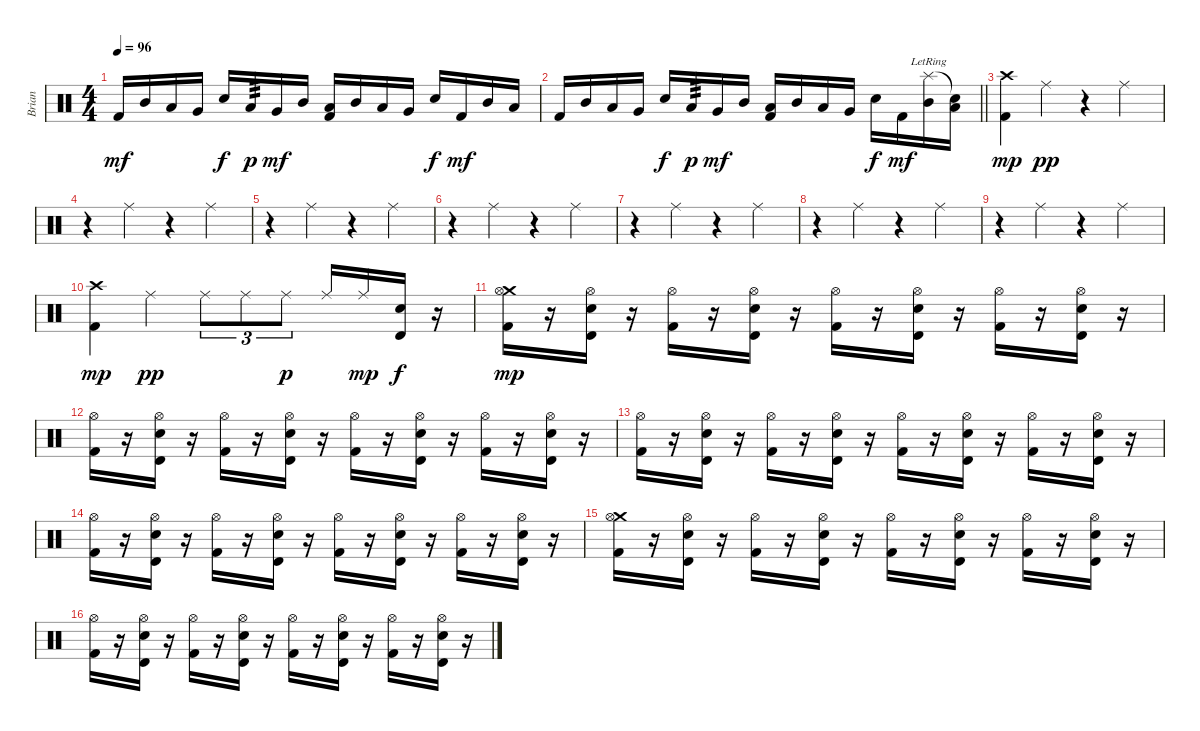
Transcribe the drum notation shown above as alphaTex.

\track ("Brian" "Brian") {instrument percussion}
\staff {score}
\articulation defaults
\ts (4 4)
\tempo 96
\clef neutral
\ks c "Kick (hit) 2".16{dy mf} "Mid Tom (hit)".16 "Low Tom (hit)".16 "Very Low Tom (hit)".16 "Electric Snare (hit)".16{dy f} "Low Tom (hit)".16{tp 3 dy p} "Very Low Tom (hit)".16{dy mf} "Mid Tom (hit)".16
("Low Tom (hit)" "Kick (hit) 2").16 "Mid Tom (hit)".16 "Low Tom (hit)".16 "Very Low Tom (hit)".16 "Electric Snare (hit)".16{dy f} "Kick (hit) 2".16{dy mf} "Mid Tom (hit)".16 "Low Tom (hit)".16 |
\barLineRight lightlight "Kick (hit) 2".16 "Mid Tom (hit)".16 "Low Tom (hit)".16 "Very Low Tom (hit)".16 "Electric Snare (hit)".16{dy f} "Low Tom (hit)".16{tp 3 dy p} "Very Low Tom (hit)".16{dy mf} "Mid Tom (hit)".16
("Low Tom (hit)" "Kick (hit) 2").16 "Mid Tom (hit)".16 "Low Tom (hit)".16 "Very Low Tom (hit)".16 "Electric Snare (hit)".16{dy f} "Kick (hit) 2".16{dy mf} ("Splash (hit)"{lr} "Mid Tom (hit)").16 ("Snare (hit)"{t} "Low Tom (hit)").16 |
("Crash high (hit)" "Kick (hit) 2").4{dy mp} "Ride (middle)".4{dy pp} r.4 "Ride (middle)".4 |
r.4 "Ride (middle)".4 r.4 "Ride (middle)".4 |
r.4 "Ride (middle)".4 r.4 "Ride (middle)".4 |
r.4 "Ride (middle)".4 r.4 "Ride (middle)".4 |
r.4 "Ride (middle)".4 r.4 "Ride (middle)".4 |
r.4 "Ride (middle)".4 r.4 "Ride (middle)".4 |
r.4 "Ride (middle)".4 r.4 "Ride (middle)".4 |
("Crash high (hit)" "Kick (hit) 2").4{dy mp} "Ride (middle)".4{dy pp} "Ride (middle)".8{tu (3 2)} "Ride (middle)".8{tu (3 2)} "Ride (middle)".8{tu (3 2) dy p} "Ride (middle)".16 "Ride (middle)".16{dy mp} ("Timbale high (hit)" "Electric Snare (hit)").16{dy f} r.16 |
("Crash medium (hit)" "Hi-Hat (open)" "Kick (hit) 2").16{dy mp} r.16 ("Hi-Hat (open)" "Timbale high (hit)" "Electric Snare (hit)").16 r.16 ("Hi-Hat (open)" "Kick (hit) 2").16 r.16 ("Hi-Hat (open)" "Timbale high (hit)" "Electric Snare (hit)").16 r.16 ("Hi-Hat (open)" "Kick (hit) 2").16 r.16 ("Hi-Hat (open)" "Timbale high (hit)" "Electric Snare (hit)").16 r.16 ("Hi-Hat (open)" "Kick (hit) 2").16 r.16 ("Hi-Hat (open)" "Timbale high (hit)" "Electric Snare (hit)").16 r.16 |
("Hi-Hat (open)" "Kick (hit) 2").16 r.16 ("Hi-Hat (open)" "Timbale high (hit)" "Electric Snare (hit)").16 r.16 ("Hi-Hat (open)" "Kick (hit) 2").16 r.16 ("Hi-Hat (open)" "Timbale high (hit)" "Electric Snare (hit)").16 r.16 ("Hi-Hat (open)" "Kick (hit) 2").16 r.16 ("Hi-Hat (open)" "Timbale high (hit)" "Electric Snare (hit)").16 r.16 ("Hi-Hat (open)" "Kick (hit) 2").16 r.16 ("Hi-Hat (open)" "Timbale high (hit)" "Electric Snare (hit)").16 r.16 |
("Hi-Hat (open)" "Kick (hit) 2").16 r.16 ("Hi-Hat (open)" "Timbale high (hit)" "Electric Snare (hit)").16 r.16 ("Hi-Hat (open)" "Kick (hit) 2").16 r.16 ("Hi-Hat (open)" "Timbale high (hit)" "Electric Snare (hit)").16 r.16 ("Hi-Hat (open)" "Kick (hit) 2").16 r.16 ("Hi-Hat (open)" "Timbale high (hit)" "Electric Snare (hit)").16 r.16 ("Hi-Hat (open)" "Kick (hit) 2").16 r.16 ("Hi-Hat (open)" "Timbale high (hit)" "Electric Snare (hit)").16 r.16 |
("Hi-Hat (open)" "Kick (hit) 2").16 r.16 ("Hi-Hat (open)" "Timbale high (hit)" "Electric Snare (hit)").16 r.16 ("Hi-Hat (open)" "Kick (hit) 2").16 r.16 ("Hi-Hat (open)" "Timbale high (hit)" "Electric Snare (hit)").16 r.16 ("Hi-Hat (open)" "Kick (hit) 2").16 r.16 ("Hi-Hat (open)" "Timbale high (hit)" "Electric Snare (hit)").16 r.16 ("Hi-Hat (open)" "Kick (hit) 2").16 r.16 ("Hi-Hat (open)" "Timbale high (hit)" "Electric Snare (hit)").16 r.16 |
("Crash medium (hit)" "Hi-Hat (open)" "Kick (hit) 2").16 r.16 ("Hi-Hat (open)" "Timbale high (hit)" "Electric Snare (hit)").16 r.16 ("Hi-Hat (open)" "Kick (hit) 2").16 r.16 ("Hi-Hat (open)" "Timbale high (hit)" "Electric Snare (hit)").16 r.16 ("Hi-Hat (open)" "Kick (hit) 2").16 r.16 ("Hi-Hat (open)" "Timbale high (hit)" "Electric Snare (hit)").16 r.16 ("Hi-Hat (open)" "Kick (hit) 2").16 r.16 ("Hi-Hat (open)" "Timbale high (hit)" "Electric Snare (hit)").16 r.16 |
("Hi-Hat (open)" "Kick (hit) 2").16 r.16 ("Hi-Hat (open)" "Timbale high (hit)" "Electric Snare (hit)").16 r.16 ("Hi-Hat (open)" "Kick (hit) 2").16 r.16 ("Hi-Hat (open)" "Timbale high (hit)" "Electric Snare (hit)").16 r.16 ("Hi-Hat (open)" "Kick (hit) 2").16 r.16 ("Hi-Hat (open)" "Timbale high (hit)" "Electric Snare (hit)").16 r.16 ("Hi-Hat (open)" "Kick (hit) 2").16 r.16 ("Hi-Hat (open)" "Timbale high (hit)" "Electric Snare (hit)").16 r.16
